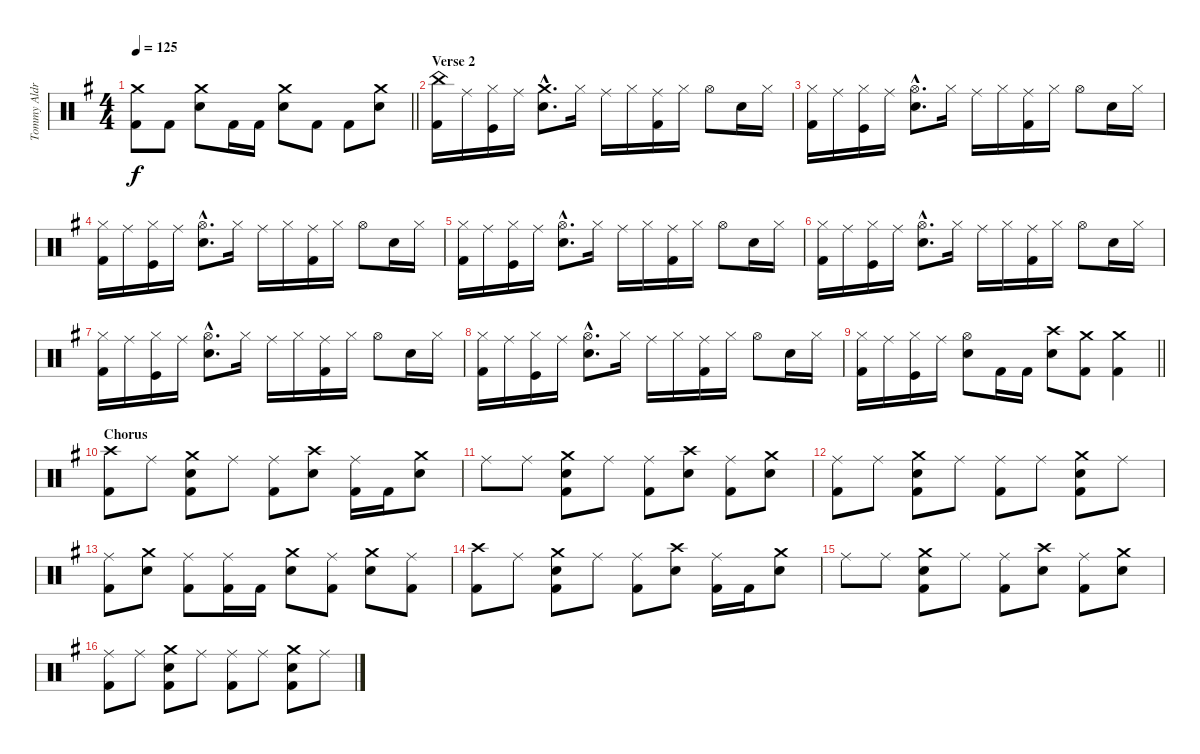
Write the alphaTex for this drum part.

\track ("Tommy Aldridge" "Tommy Aldr") {instrument percussion}
\staff {score}
\articulation defaults
\ts (4 4)
\tempo 125
\clef neutral
\barLineRight lightlight
\ks eminor
("Crash medium (hit)" "Kick (hit) 2").8{dy f} "Kick (hit) 2".8 ("Crash medium (hit)" "Snare (hit) 2").8 "Kick (hit) 2".16 "Kick (hit) 2".16 ("Crash medium (hit)" "Snare (hit) 2").8 "Kick (hit) 2".8 "Kick (hit) 2".8 ("Crash medium (hit)" "Snare (hit) 2").8 |
\section ("" "Verse 2")
("China (hit)" "Kick (hit) 2").16 "Ride (middle)".16 ("Hi-Hat (closed)" "Kick (hit)").16 "Ride (middle)".16 ("Crash medium (hit)"{hac} "Snare (hit) 2"{hac}).8{d} "Hi-Hat (closed)".16 "Ride (middle)".16 "Hi-Hat (closed)".16 ("Ride (middle)" "Kick (hit) 2").16 "Hi-Hat (closed)".16 "Hi-Hat (open)".8 "Snare (hit) 2".16 "Hi-Hat (closed)".16 |
("Hi-Hat (closed)" "Kick (hit) 2").16 "Ride (middle)".16 ("Hi-Hat (closed)" "Kick (hit)").16 "Ride (middle)".16 ("Hi-Hat (open)"{hac} "Snare (hit) 2"{hac}).8{d} "Hi-Hat (closed)".16 "Ride (middle)".16 "Hi-Hat (closed)".16 ("Ride (middle)" "Kick (hit) 2").16 "Hi-Hat (closed)".16 "Hi-Hat (open)".8 "Snare (hit) 2".16 "Hi-Hat (closed)".16 |
("Hi-Hat (closed)" "Kick (hit) 2").16 "Ride (middle)".16 ("Hi-Hat (closed)" "Kick (hit)").16 "Ride (middle)".16 ("Hi-Hat (open)"{hac} "Snare (hit) 2"{hac}).8{d} "Hi-Hat (closed)".16 "Ride (middle)".16 "Hi-Hat (closed)".16 ("Ride (middle)" "Kick (hit) 2").16 "Hi-Hat (closed)".16 "Hi-Hat (open)".8 "Snare (hit) 2".16 "Hi-Hat (closed)".16 |
("Hi-Hat (closed)" "Kick (hit) 2").16 "Ride (middle)".16 ("Hi-Hat (closed)" "Kick (hit)").16 "Ride (middle)".16 ("Hi-Hat (open)"{hac} "Snare (hit) 2"{hac}).8{d} "Hi-Hat (closed)".16 "Ride (middle)".16 "Hi-Hat (closed)".16 ("Ride (middle)" "Kick (hit) 2").16 "Hi-Hat (closed)".16 "Hi-Hat (open)".8 "Snare (hit) 2".16 "Hi-Hat (closed)".16 |
("Hi-Hat (closed)" "Kick (hit) 2").16 "Ride (middle)".16 ("Hi-Hat (closed)" "Kick (hit)").16 "Ride (middle)".16 ("Hi-Hat (open)"{hac} "Snare (hit) 2"{hac}).8{d} "Hi-Hat (closed)".16 "Ride (middle)".16 "Hi-Hat (closed)".16 ("Ride (middle)" "Kick (hit) 2").16 "Hi-Hat (closed)".16 "Hi-Hat (open)".8 "Snare (hit) 2".16 "Hi-Hat (closed)".16 |
("Hi-Hat (closed)" "Kick (hit) 2").16 "Ride (middle)".16 ("Hi-Hat (closed)" "Kick (hit)").16 "Ride (middle)".16 ("Hi-Hat (open)"{hac} "Snare (hit) 2"{hac}).8{d} "Hi-Hat (closed)".16 "Ride (middle)".16 "Hi-Hat (closed)".16 ("Ride (middle)" "Kick (hit) 2").16 "Hi-Hat (closed)".16 "Hi-Hat (open)".8 "Snare (hit) 2".16 "Hi-Hat (closed)".16 |
("Hi-Hat (closed)" "Kick (hit) 2").16 "Ride (middle)".16 ("Hi-Hat (closed)" "Kick (hit)").16 "Ride (middle)".16 ("Hi-Hat (open)"{hac} "Snare (hit) 2"{hac}).8{d} "Hi-Hat (closed)".16 "Ride (middle)".16 "Hi-Hat (closed)".16 ("Ride (middle)" "Kick (hit) 2").16 "Hi-Hat (closed)".16 "Hi-Hat (open)".8 "Snare (hit) 2".16 "Hi-Hat (closed)".16 |
\barLineRight lightlight
("Hi-Hat (closed)" "Kick (hit) 2").16 "Ride (middle)".16 ("Hi-Hat (closed)" "Kick (hit)").16 "Ride (middle)".16 ("Hi-Hat (open)" "Snare (hit) 2").8 "Kick (hit) 2".16 "Kick (hit) 2".16 ("Crash high (hit)" "Snare (hit) 2").8 ("Crash medium (hit)" "Kick (hit) 2").8 ("Crash medium (hit)" "Kick (hit) 2").4 |
\section ("" "Chorus")
("Crash high (hit)" "Kick (hit) 2").8 "Ride (middle)".8 ("Crash medium (hit)" "Snare (hit) 2" "Kick (hit) 2").8 "Ride (middle)".8 ("Ride (middle)" "Kick (hit) 2").8 ("Crash high (hit)" "Snare (hit) 2").8 ("Ride (middle)" "Kick (hit) 2").16 "Kick (hit) 2".16 ("Crash medium (hit)" "Snare (hit) 2").8 |
"Ride (middle)".8 "Ride (middle)".8 ("Crash medium (hit)" "Snare (hit) 2" "Kick (hit) 2").8 "Ride (middle)".8 ("Ride (middle)" "Kick (hit) 2").8 ("Crash high (hit)" "Snare (hit) 2").8 ("Ride (middle)" "Kick (hit) 2").8 ("Crash medium (hit)" "Snare (hit) 2").8 |
("Ride (middle)" "Kick (hit) 2").8 "Ride (middle)".8 ("Crash medium (hit)" "Snare (hit) 2" "Kick (hit) 2").8 "Ride (middle)".8 ("Ride (middle)" "Kick (hit) 2").8 "Ride (middle)".8 ("Crash medium (hit)" "Snare (hit) 2" "Kick (hit) 2").8 "Ride (middle)".8 |
("Ride (middle)" "Kick (hit) 2").8 ("Crash medium (hit)" "Snare (hit) 2").8 ("Ride (middle)" "Kick (hit) 2").8 ("Ride (middle)" "Kick (hit) 2").16 "Kick (hit) 2".16 ("Crash medium (hit)" "Snare (hit) 2").8 ("Ride (middle)" "Kick (hit) 2").8 ("Crash medium (hit)" "Snare (hit) 2").8 ("Ride (middle)" "Kick (hit) 2").8 |
("Crash high (hit)" "Kick (hit) 2").8 "Ride (middle)".8 ("Crash medium (hit)" "Snare (hit) 2" "Kick (hit) 2").8 "Ride (middle)".8 ("Ride (middle)" "Kick (hit) 2").8 ("Crash high (hit)" "Snare (hit) 2").8 ("Ride (middle)" "Kick (hit) 2").16 "Kick (hit) 2".16 ("Crash medium (hit)" "Snare (hit) 2").8 |
"Ride (middle)".8 "Ride (middle)".8 ("Crash medium (hit)" "Snare (hit) 2" "Kick (hit) 2").8 "Ride (middle)".8 ("Ride (middle)" "Kick (hit) 2").8 ("Crash high (hit)" "Snare (hit) 2").8 ("Ride (middle)" "Kick (hit) 2").8 ("Crash medium (hit)" "Snare (hit) 2").8 |
("Ride (middle)" "Kick (hit) 2").8 "Ride (middle)".8 ("Crash medium (hit)" "Snare (hit) 2" "Kick (hit) 2").8 "Ride (middle)".8 ("Ride (middle)" "Kick (hit) 2").8 "Ride (middle)".8 ("Crash medium (hit)" "Snare (hit) 2" "Kick (hit) 2").8 "Ride (middle)".8
